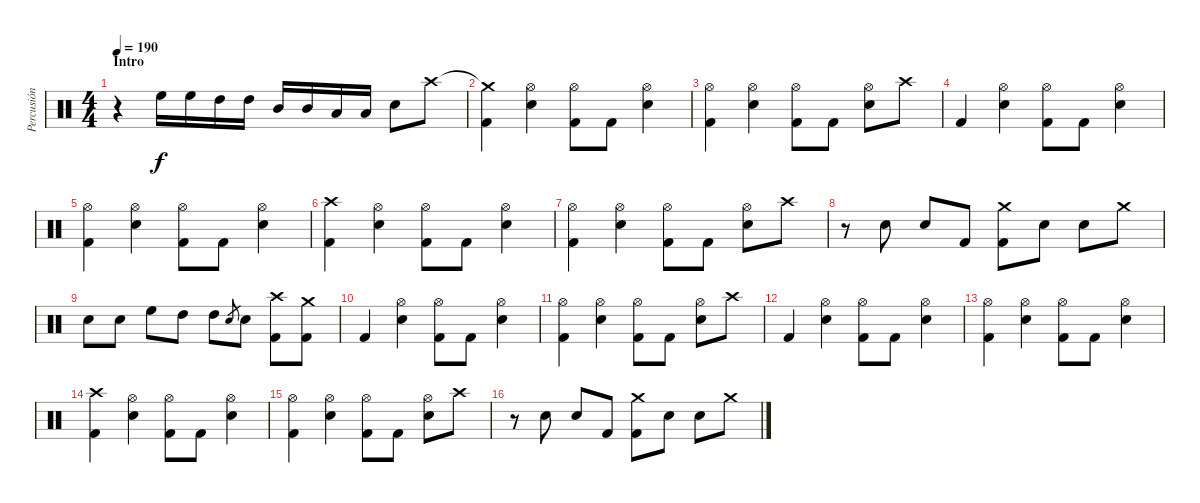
\track ("Percusión" "Percusión") {instrument percussion}
\staff {score}
\articulation defaults
\ts (4 4)
\section ("" "Intro")
\tempo 190
\clef neutral
\ks c
r.4{dy f balance 16} "High Floor Tom (hit)".16{balance 0} "High Floor Tom (hit)".16 "High Tom (hit)".16 "High Tom (hit)".16 "Mid Tom (hit)".16 "Mid Tom (hit)".16 "Low Tom (hit)".16 "Low Tom (hit)".16 "Snare (hit) 2".8 "Crash high (hit)".8 |
("Crash medium (hit)"{t} "Kick (hit) 2").4{balance 8} ("Hi-Hat (open)" "Snare (hit) 2").4 ("Hi-Hat (open)" "Kick (hit) 2").8 "Kick (hit) 2".8 ("Hi-Hat (open)" "Snare (hit) 2").4 |
("Hi-Hat (open)" "Kick (hit) 2").4 ("Hi-Hat (open)" "Snare (hit) 2").4 ("Hi-Hat (open)" "Kick (hit) 2").8 "Kick (hit) 2".8 ("Hi-Hat (open)" "Snare (hit) 2").8 "Crash high (hit)".8 |
"Kick (hit) 2".4 ("Hi-Hat (open)" "Snare (hit) 2").4 ("Hi-Hat (open)" "Kick (hit) 2").8 "Kick (hit) 2".8 ("Hi-Hat (open)" "Snare (hit) 2").4 |
("Hi-Hat (open)" "Kick (hit) 2").4 ("Hi-Hat (open)" "Snare (hit) 2").4 ("Hi-Hat (open)" "Kick (hit) 2").8 "Kick (hit) 2".8 ("Hi-Hat (open)" "Snare (hit) 2").4 |
("Crash high (hit)" "Kick (hit) 2").4 ("Hi-Hat (open)" "Snare (hit) 2").4 ("Hi-Hat (open)" "Kick (hit) 2").8 "Kick (hit) 2".8 ("Hi-Hat (open)" "Snare (hit) 2").4 |
("Hi-Hat (open)" "Kick (hit) 2").4 ("Hi-Hat (open)" "Snare (hit) 2").4 ("Hi-Hat (open)" "Kick (hit) 2").8 "Kick (hit) 2".8 ("Hi-Hat (open)" "Snare (hit) 2").8 "Crash high (hit)".8 |
r.8 "Snare (hit) 2".8 "Snare (hit) 2".8 "Kick (hit) 2".8 ("Crash medium (hit)" "Kick (hit) 2").8 "Snare (hit) 2".8 "Snare (hit) 2".8 "Crash medium (hit)".8 |
"Snare (hit) 2".8 "Snare (hit) 2".8 "High Floor Tom (hit)".8 "High Tom (hit)".8 "High Tom (hit)".8 "Snare (hit) 2".8{gr} "Snare (hit) 2".8 ("Crash high (hit)" "Kick (hit) 2").8 ("Crash medium (hit)" "Kick (hit) 2").8 |
"Kick (hit) 2".4 ("Hi-Hat (open)" "Snare (hit) 2").4 ("Hi-Hat (open)" "Kick (hit) 2").8 "Kick (hit) 2".8 ("Hi-Hat (open)" "Snare (hit) 2").4 |
("Hi-Hat (open)" "Kick (hit) 2").4 ("Hi-Hat (open)" "Snare (hit) 2").4 ("Hi-Hat (open)" "Kick (hit) 2").8 "Kick (hit) 2".8 ("Hi-Hat (open)" "Snare (hit) 2").8 "Crash high (hit)".8 |
"Kick (hit) 2".4 ("Hi-Hat (open)" "Snare (hit) 2").4 ("Hi-Hat (open)" "Kick (hit) 2").8 "Kick (hit) 2".8 ("Hi-Hat (open)" "Snare (hit) 2").4 |
("Hi-Hat (open)" "Kick (hit) 2").4 ("Hi-Hat (open)" "Snare (hit) 2").4 ("Hi-Hat (open)" "Kick (hit) 2").8 "Kick (hit) 2".8 ("Hi-Hat (open)" "Snare (hit) 2").4 |
("Crash high (hit)" "Kick (hit) 2").4 ("Hi-Hat (open)" "Snare (hit) 2").4 ("Hi-Hat (open)" "Kick (hit) 2").8 "Kick (hit) 2".8 ("Hi-Hat (open)" "Snare (hit) 2").4 |
("Hi-Hat (open)" "Kick (hit) 2").4 ("Hi-Hat (open)" "Snare (hit) 2").4 ("Hi-Hat (open)" "Kick (hit) 2").8 "Kick (hit) 2".8 ("Hi-Hat (open)" "Snare (hit) 2").8 "Crash high (hit)".8 |
r.8 "Snare (hit) 2".8 "Snare (hit) 2".8 "Kick (hit) 2".8 ("Crash medium (hit)" "Kick (hit) 2").8 "Snare (hit) 2".8 "Snare (hit) 2".8 "Crash medium (hit)".8
